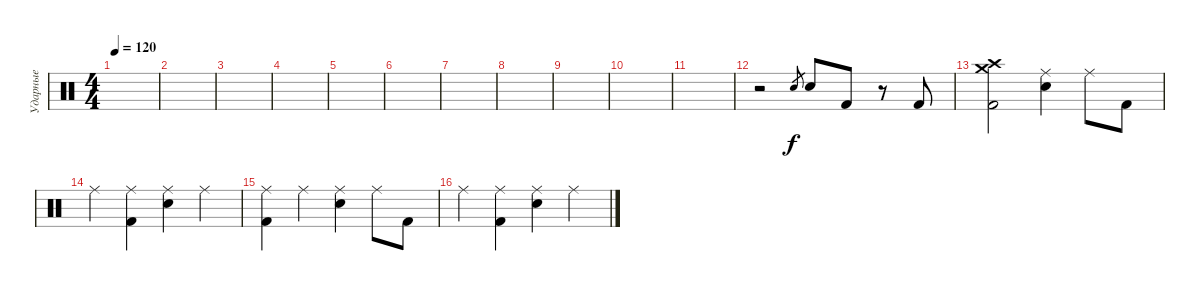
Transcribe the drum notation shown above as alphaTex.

\track ("Ударные" "Ударные") {instrument percussion}
\staff {score}
\articulation defaults
\ts (4 4)
\tempo 120
\clef neutral
\ks c
|
|
|
|
|
|
|
|
|
|
|
r.2 "Electric Snare (hit)".8{gr} "Electric Snare (hit)".8 "Kick (hit) 2".8 r.8 "Kick (hit) 2".8 |
("Crash high (hit)" "Crash medium (hit)" "Kick (hit) 2").2 ("Ride (middle)" "Electric Snare (hit)").4 "Ride (middle)".8 "Kick (hit) 2".8 |
"Ride (middle)".4 ("Ride (middle)" "Kick (hit) 2").4 ("Ride (middle)" "Electric Snare (hit)").4 "Ride (middle)".4 |
("Ride (middle)" "Kick (hit) 2").4 "Ride (middle)".4 ("Ride (middle)" "Electric Snare (hit)").4 "Ride (middle)".8 "Kick (hit) 2".8 |
"Ride (middle)".4 ("Ride (middle)" "Kick (hit) 2").4 ("Ride (middle)" "Electric Snare (hit)").4 "Ride (middle)".4
